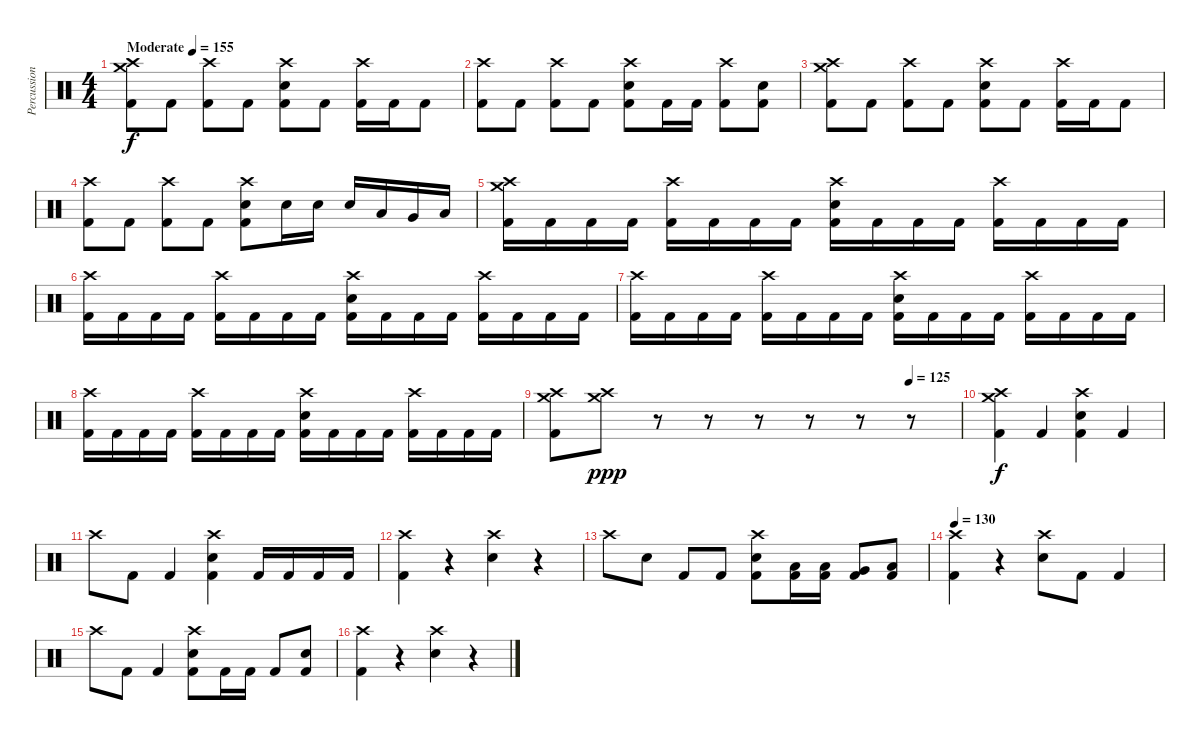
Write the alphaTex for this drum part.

\track ("Percussion" "Percussion") {instrument percussion}
\staff {score}
\articulation defaults
\ts (4 4)
\tempo (155 "Moderate")
\clef neutral
\ks c
("Crash medium (hit)" "Crash high (hit)" "Kick (hit) 2").8{dy f} "Kick (hit) 2".8 ("Crash high (hit)" "Kick (hit) 2").8 "Kick (hit) 2".8 ("Crash high (hit)" "Electric Snare (hit)" "Kick (hit) 2").8 "Kick (hit) 2".8 ("Crash high (hit)" "Kick (hit) 2").16 "Kick (hit) 2".16 "Kick (hit) 2".8 |
("Crash high (hit)" "Kick (hit) 2").8 "Kick (hit) 2".8 ("Crash high (hit)" "Kick (hit) 2").8 "Kick (hit) 2".8 ("Crash high (hit)" "Electric Snare (hit)" "Kick (hit) 2").8 "Kick (hit) 2".16 "Kick (hit) 2".16 ("Crash high (hit)" "Kick (hit) 2").8 ("Electric Snare (hit)" "Kick (hit) 2").8 |
("Crash medium (hit)" "Crash high (hit)" "Kick (hit) 2").8 "Kick (hit) 2".8 ("Crash high (hit)" "Kick (hit) 2").8 "Kick (hit) 2".8 ("Crash high (hit)" "Electric Snare (hit)" "Kick (hit) 2").8 "Kick (hit) 2".8 ("Crash high (hit)" "Kick (hit) 2").16 "Kick (hit) 2".16 "Kick (hit) 2".8 |
("Crash high (hit)" "Kick (hit) 2").8 "Kick (hit) 2".8 ("Crash high (hit)" "Kick (hit) 2").8 "Kick (hit) 2".8 ("Crash high (hit)" "Electric Snare (hit)" "Kick (hit) 2").8 "Electric Snare (hit)".16 "Electric Snare (hit)".16 "Electric Snare (hit)".16 "Low Tom (hit)".16 "Very Low Tom (hit)".16 "Low Floor Tom (hit)".16 |
("Crash medium (hit)" "Crash high (hit)" "Kick (hit) 2").16 "Kick (hit) 2".16 "Kick (hit) 2".16 "Kick (hit) 2".16 ("Crash high (hit)" "Kick (hit) 2").16 "Kick (hit) 2".16 "Kick (hit) 2".16 "Kick (hit) 2".16 ("Crash high (hit)" "Electric Snare (hit)" "Kick (hit) 2").16 "Kick (hit) 2".16 "Kick (hit) 2".16 "Kick (hit) 2".16 ("Crash high (hit)" "Kick (hit) 2").16 "Kick (hit) 2".16 "Kick (hit) 2".16 "Kick (hit) 2".16 |
("Crash high (hit)" "Kick (hit) 2").16 "Kick (hit) 2".16 "Kick (hit) 2".16 "Kick (hit) 2".16 ("Crash high (hit)" "Kick (hit) 2").16 "Kick (hit) 2".16 "Kick (hit) 2".16 "Kick (hit) 2".16 ("Crash high (hit)" "Electric Snare (hit)" "Kick (hit) 2").16 "Kick (hit) 2".16 "Kick (hit) 2".16 "Kick (hit) 2".16 ("Crash high (hit)" "Kick (hit) 2").16 "Kick (hit) 2".16 "Kick (hit) 2".16 "Kick (hit) 2".16 |
("Crash high (hit)" "Kick (hit) 2").16 "Kick (hit) 2".16 "Kick (hit) 2".16 "Kick (hit) 2".16 ("Crash high (hit)" "Kick (hit) 2").16 "Kick (hit) 2".16 "Kick (hit) 2".16 "Kick (hit) 2".16 ("Crash high (hit)" "Electric Snare (hit)" "Kick (hit) 2").16 "Kick (hit) 2".16 "Kick (hit) 2".16 "Kick (hit) 2".16 ("Crash high (hit)" "Kick (hit) 2").16 "Kick (hit) 2".16 "Kick (hit) 2".16 "Kick (hit) 2".16 |
("Crash high (hit)" "Kick (hit) 2").16 "Kick (hit) 2".16 "Kick (hit) 2".16 "Kick (hit) 2".16 ("Crash high (hit)" "Kick (hit) 2").16 "Kick (hit) 2".16 "Kick (hit) 2".16 "Kick (hit) 2".16 ("Crash high (hit)" "Electric Snare (hit)" "Kick (hit) 2").16 "Kick (hit) 2".16 "Kick (hit) 2".16 "Kick (hit) 2".16 ("Crash high (hit)" "Kick (hit) 2").16 "Kick (hit) 2".16 "Kick (hit) 2".16 "Kick (hit) 2".16 |
\tempo (125 0.875)
("Crash medium (hit)" "Crash high (hit)" "Kick (hit) 2").8 ("Crash medium (hit)" "Crash high (hit)").8{dy ppp} r.8 r.8 r.8 r.8 r.8 r.8 |
("Crash medium (hit)" "Crash high (hit)" "Kick (hit) 2").4{dy f} "Kick (hit) 2".4 ("Crash high (hit)" "Electric Snare (hit)" "Kick (hit) 2").4 "Kick (hit) 2".4 |
"Crash high (hit)".8 "Kick (hit) 2".8 "Kick (hit) 2".4 ("Crash high (hit)" "Electric Snare (hit)" "Kick (hit) 2").4 "Kick (hit) 2".16 "Kick (hit) 2".16 "Kick (hit) 2".16 "Kick (hit) 2".16 |
("Crash high (hit)" "Kick (hit) 2").4 r.4 ("Crash high (hit)" "Electric Snare (hit)").4 r.4 |
"Crash high (hit)".8 "Electric Snare (hit)".8 "Kick (hit) 2".8 "Kick (hit) 2".8 ("Crash high (hit)" "Electric Snare (hit)" "Kick (hit) 2").8 ("Low Tom (hit)" "Kick (hit) 2").16 ("Low Tom (hit)" "Kick (hit) 2").16 ("Very Low Tom (hit)" "Kick (hit) 2").8 ("Low Floor Tom (hit)" "Kick (hit) 2").8 |
\tempo 130
("Crash high (hit)" "Kick (hit) 2").4 r.4 ("Crash high (hit)" "Electric Snare (hit)").8 "Kick (hit) 2".8 "Kick (hit) 2".4 |
"Crash high (hit)".8 "Kick (hit) 2".8 "Kick (hit) 2".4 ("Crash high (hit)" "Electric Snare (hit)" "Kick (hit) 2").8 "Kick (hit) 2".16 "Kick (hit) 2".16 "Kick (hit) 2".8 ("Electric Snare (hit)" "Kick (hit) 2").8 |
("Crash high (hit)" "Kick (hit) 2").4 r.4 ("Crash high (hit)" "Electric Snare (hit)").4 r.4
